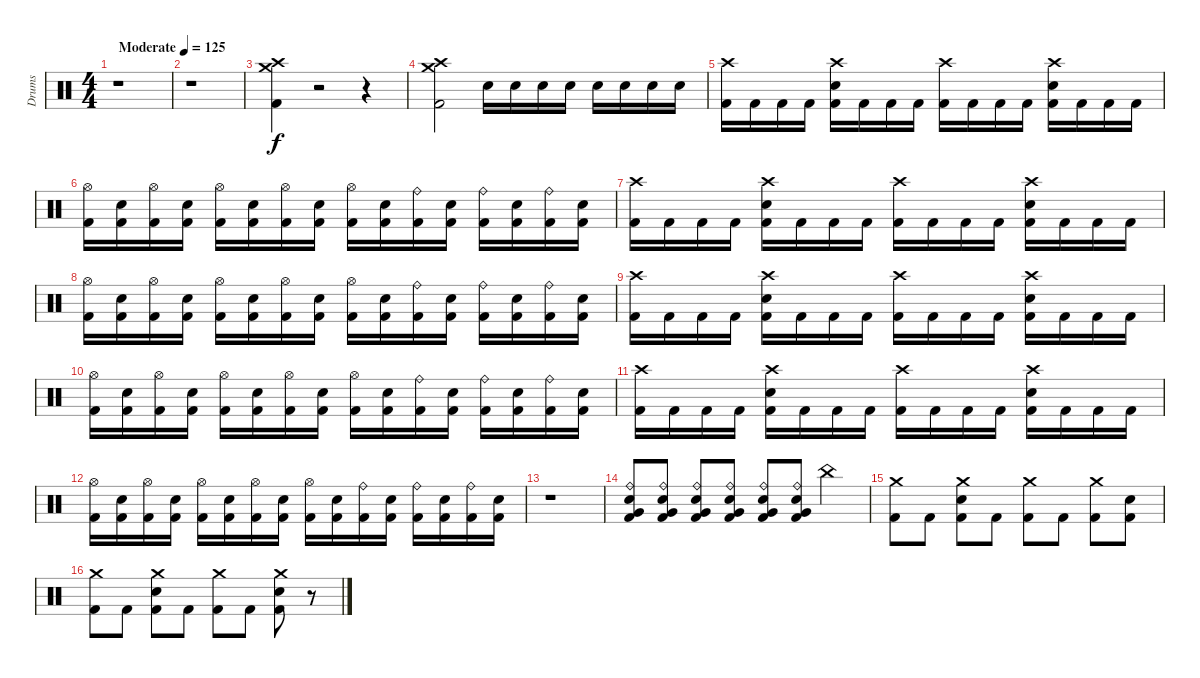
\track ("Drums" "Drums") {instrument percussion}
\staff {score}
\articulation defaults
\ts (4 4)
\tempo (125 "Moderate")
\clef neutral
\ks c
r.1{dy f} |
r.1 |
("Crash high (hit)" "Crash medium (hit)" "Kick (hit) 2").4 r.2 r.4 |
("Crash high (hit)" "Crash medium (hit)" "Kick (hit) 2").2 "Snare (hit) 2".16 "Snare (hit) 2".16 "Snare (hit) 2".16 "Snare (hit) 2".16 "Snare (hit) 2".16 "Snare (hit) 2".16 "Snare (hit) 2".16 "Snare (hit) 2".16 |
("Crash high (hit)" "Kick (hit) 2").16 "Kick (hit) 2".16 "Kick (hit) 2".16 "Kick (hit) 2".16 ("Crash high (hit)" "Snare (hit) 2" "Kick (hit) 2").16 "Kick (hit) 2".16 "Kick (hit) 2".16 "Kick (hit) 2".16 ("Crash high (hit)" "Kick (hit) 2").16 "Kick (hit) 2".16 "Kick (hit) 2".16 "Kick (hit) 2".16 ("Crash high (hit)" "Snare (hit) 2" "Kick (hit) 2").16 "Kick (hit) 2".16 "Kick (hit) 2".16 "Kick (hit) 2".16 |
("Hi-Hat (open)" "Kick (hit) 2").16 ("Snare (hit) 2" "Kick (hit) 2").16 ("Hi-Hat (open)" "Kick (hit) 2").16 ("Snare (hit) 2" "Kick (hit) 2").16 ("Hi-Hat (open)" "Kick (hit) 2").16 ("Snare (hit) 2" "Kick (hit) 2").16 ("Hi-Hat (open)" "Kick (hit) 2").16 ("Snare (hit) 2" "Kick (hit) 2").16 ("Hi-Hat (open)" "Kick (hit) 2").16 ("Snare (hit) 2" "Kick (hit) 2").16 ("Ride (bell)" "Kick (hit) 2").16 ("Snare (hit) 2" "Kick (hit) 2").16 ("Ride (bell)" "Kick (hit) 2").16 ("Snare (hit) 2" "Kick (hit) 2").16 ("Ride (bell)" "Kick (hit) 2").16 ("Snare (hit) 2" "Kick (hit) 2").16 |
("Crash high (hit)" "Kick (hit) 2").16 "Kick (hit) 2".16 "Kick (hit) 2".16 "Kick (hit) 2".16 ("Crash high (hit)" "Snare (hit) 2" "Kick (hit) 2").16 "Kick (hit) 2".16 "Kick (hit) 2".16 "Kick (hit) 2".16 ("Crash high (hit)" "Kick (hit) 2").16 "Kick (hit) 2".16 "Kick (hit) 2".16 "Kick (hit) 2".16 ("Crash high (hit)" "Snare (hit) 2" "Kick (hit) 2").16 "Kick (hit) 2".16 "Kick (hit) 2".16 "Kick (hit) 2".16 |
("Hi-Hat (open)" "Kick (hit) 2").16 ("Snare (hit) 2" "Kick (hit) 2").16 ("Hi-Hat (open)" "Kick (hit) 2").16 ("Snare (hit) 2" "Kick (hit) 2").16 ("Hi-Hat (open)" "Kick (hit) 2").16 ("Snare (hit) 2" "Kick (hit) 2").16 ("Hi-Hat (open)" "Kick (hit) 2").16 ("Snare (hit) 2" "Kick (hit) 2").16 ("Hi-Hat (open)" "Kick (hit) 2").16 ("Snare (hit) 2" "Kick (hit) 2").16 ("Ride (bell)" "Kick (hit) 2").16 ("Snare (hit) 2" "Kick (hit) 2").16 ("Ride (bell)" "Kick (hit) 2").16 ("Snare (hit) 2" "Kick (hit) 2").16 ("Ride (bell)" "Kick (hit) 2").16 ("Snare (hit) 2" "Kick (hit) 2").16 |
("Crash high (hit)" "Kick (hit) 2").16 "Kick (hit) 2".16 "Kick (hit) 2".16 "Kick (hit) 2".16 ("Crash high (hit)" "Snare (hit) 2" "Kick (hit) 2").16 "Kick (hit) 2".16 "Kick (hit) 2".16 "Kick (hit) 2".16 ("Crash high (hit)" "Kick (hit) 2").16 "Kick (hit) 2".16 "Kick (hit) 2".16 "Kick (hit) 2".16 ("Crash high (hit)" "Snare (hit) 2" "Kick (hit) 2").16 "Kick (hit) 2".16 "Kick (hit) 2".16 "Kick (hit) 2".16 |
("Hi-Hat (open)" "Kick (hit) 2").16 ("Snare (hit) 2" "Kick (hit) 2").16 ("Hi-Hat (open)" "Kick (hit) 2").16 ("Snare (hit) 2" "Kick (hit) 2").16 ("Hi-Hat (open)" "Kick (hit) 2").16 ("Snare (hit) 2" "Kick (hit) 2").16 ("Hi-Hat (open)" "Kick (hit) 2").16 ("Snare (hit) 2" "Kick (hit) 2").16 ("Hi-Hat (open)" "Kick (hit) 2").16 ("Snare (hit) 2" "Kick (hit) 2").16 ("Ride (bell)" "Kick (hit) 2").16 ("Snare (hit) 2" "Kick (hit) 2").16 ("Ride (bell)" "Kick (hit) 2").16 ("Snare (hit) 2" "Kick (hit) 2").16 ("Ride (bell)" "Kick (hit) 2").16 ("Snare (hit) 2" "Kick (hit) 2").16 |
("Crash high (hit)" "Kick (hit) 2").16 "Kick (hit) 2".16 "Kick (hit) 2".16 "Kick (hit) 2".16 ("Crash high (hit)" "Snare (hit) 2" "Kick (hit) 2").16 "Kick (hit) 2".16 "Kick (hit) 2".16 "Kick (hit) 2".16 ("Crash high (hit)" "Kick (hit) 2").16 "Kick (hit) 2".16 "Kick (hit) 2".16 "Kick (hit) 2".16 ("Crash high (hit)" "Snare (hit) 2" "Kick (hit) 2").16 "Kick (hit) 2".16 "Kick (hit) 2".16 "Kick (hit) 2".16 |
("Hi-Hat (open)" "Kick (hit) 2").16 ("Snare (hit) 2" "Kick (hit) 2").16 ("Hi-Hat (open)" "Kick (hit) 2").16 ("Snare (hit) 2" "Kick (hit) 2").16 ("Hi-Hat (open)" "Kick (hit) 2").16 ("Snare (hit) 2" "Kick (hit) 2").16 ("Hi-Hat (open)" "Kick (hit) 2").16 ("Snare (hit) 2" "Kick (hit) 2").16 ("Hi-Hat (open)" "Kick (hit) 2").16 ("Snare (hit) 2" "Kick (hit) 2").16 ("Ride (bell)" "Kick (hit) 2").16 ("Snare (hit) 2" "Kick (hit) 2").16 ("Ride (bell)" "Kick (hit) 2").16 ("Snare (hit) 2" "Kick (hit) 2").16 ("Ride (bell)" "Kick (hit) 2").16 ("Snare (hit) 2" "Kick (hit) 2").16 |
r.1 |
("Snare (hit) 2" "Ride (bell)" "Very Low Tom (hit)" "Kick (hit) 2").8 ("Snare (hit) 2" "Ride (bell)" "Very Low Tom (hit)" "Kick (hit) 2").8 ("Snare (hit) 2" "Ride (bell)" "Very Low Tom (hit)" "Kick (hit) 2").8 ("Snare (hit) 2" "Ride (bell)" "Very Low Tom (hit)" "Kick (hit) 2").8 ("Snare (hit) 2" "Ride (bell)" "Very Low Tom (hit)" "Kick (hit) 2").8 ("Snare (hit) 2" "Ride (bell)" "Very Low Tom (hit)" "Kick (hit) 2").8 "China (hit)".4 |
("Crash medium (hit)" "Kick (hit) 2").8 "Kick (hit) 2".8 ("Crash medium (hit)" "Snare (hit) 2" "Kick (hit) 2").8 "Kick (hit) 2".8 ("Crash medium (hit)" "Kick (hit) 2").8 "Kick (hit) 2".8 ("Crash medium (hit)" "Kick (hit) 2").8 ("Snare (hit) 2" "Kick (hit) 2").8 |
("Crash medium (hit)" "Kick (hit) 2").8 "Kick (hit) 2".8 ("Crash medium (hit)" "Snare (hit) 2" "Kick (hit) 2").8 "Kick (hit) 2".8 ("Crash medium (hit)" "Kick (hit) 2").8 "Kick (hit) 2".8 ("Crash medium (hit)" "Snare (hit) 2" "Kick (hit) 2").8 r.8
